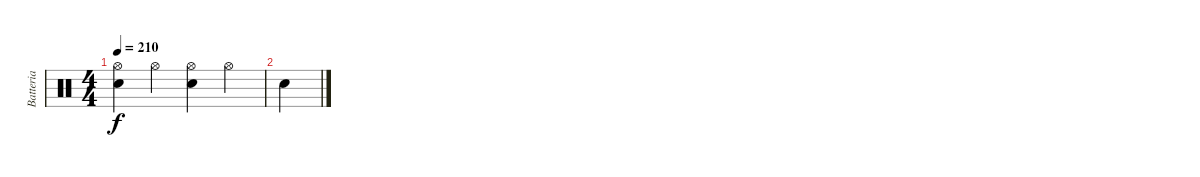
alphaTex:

\track ("Batteria" "Batteria") {instrument percussion}
\staff {score}
\articulation defaults
\ts (4 4)
\tempo 210
\clef neutral
\ks c
("Hi-Hat (open)" "Snare (hit) 2").4{dy f} "Hi-Hat (open)".4 ("Snare (hit) 2" "Hi-Hat (open)").4 "Hi-Hat (open)".4 |
"Snare (hit) 2".4
